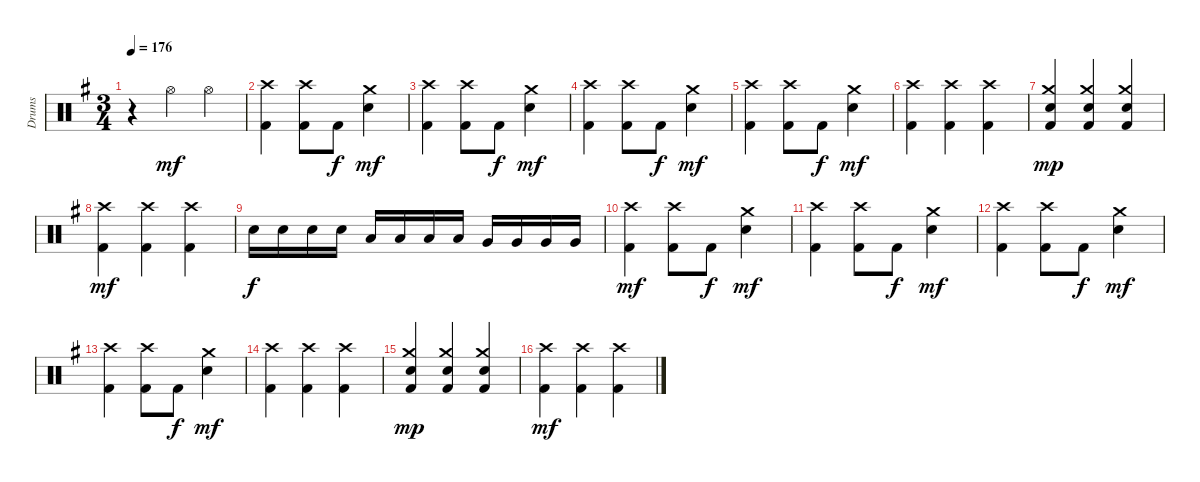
\track ("Drums" "Drums") {instrument percussion}
\staff {score}
\articulation defaults
\ts (3 4)
\tempo 176
\clef neutral
\ks g
r.4{dy mf} "Hi-Hat (open)".4 "Hi-Hat (open)".4 |
("Crash high (hit)" "Kick (hit) 2").4 ("Crash high (hit)" "Kick (hit) 2").8 "Kick (hit) 2".8{dy f} ("Crash medium (hit)" "Snare (hit) 2").4{dy mf} |
("Crash high (hit)" "Kick (hit) 2").4 ("Crash high (hit)" "Kick (hit) 2").8 "Kick (hit) 2".8{dy f} ("Crash medium (hit)" "Snare (hit) 2").4{dy mf} |
("Crash high (hit)" "Kick (hit) 2").4 ("Crash high (hit)" "Kick (hit) 2").8 "Kick (hit) 2".8{dy f} ("Crash medium (hit)" "Snare (hit) 2").4{dy mf} |
("Crash high (hit)" "Kick (hit) 2").4 ("Crash high (hit)" "Kick (hit) 2").8 "Kick (hit) 2".8{dy f} ("Crash medium (hit)" "Snare (hit) 2").4{dy mf} |
("Crash high (hit)" "Kick (hit) 2").4 ("Crash high (hit)" "Kick (hit) 2").4 ("Crash high (hit)" "Kick (hit) 2").4 |
("Crash medium (hit)" "Snare (hit) 2" "Kick (hit) 2").4{dy mp} ("Crash medium (hit)" "Snare (hit) 2" "Kick (hit) 2").4 ("Crash medium (hit)" "Snare (hit) 2" "Kick (hit) 2").4 |
("Crash high (hit)" "Kick (hit) 2").4{dy mf} ("Crash high (hit)" "Kick (hit) 2").4 ("Crash high (hit)" "Kick (hit) 2").4 |
"Snare (hit) 2".16{dy f} "Snare (hit) 2".16 "Snare (hit) 2".16 "Snare (hit) 2".16 "Low Tom (hit)".16 "Low Tom (hit)".16 "Low Tom (hit)".16 "Low Tom (hit)".16 "Very Low Tom (hit)".16 "Very Low Tom (hit)".16 "Very Low Tom (hit)".16 "Very Low Tom (hit)".16 |
("Crash high (hit)" "Kick (hit) 2").4{dy mf} ("Crash high (hit)" "Kick (hit) 2").8 "Kick (hit) 2".8{dy f} ("Crash medium (hit)" "Snare (hit) 2").4{dy mf} |
("Crash high (hit)" "Kick (hit) 2").4 ("Crash high (hit)" "Kick (hit) 2").8 "Kick (hit) 2".8{dy f} ("Crash medium (hit)" "Snare (hit) 2").4{dy mf} |
("Crash high (hit)" "Kick (hit) 2").4 ("Crash high (hit)" "Kick (hit) 2").8 "Kick (hit) 2".8{dy f} ("Crash medium (hit)" "Snare (hit) 2").4{dy mf} |
("Crash high (hit)" "Kick (hit) 2").4 ("Crash high (hit)" "Kick (hit) 2").8 "Kick (hit) 2".8{dy f} ("Crash medium (hit)" "Snare (hit) 2").4{dy mf} |
("Crash high (hit)" "Kick (hit) 2").4 ("Crash high (hit)" "Kick (hit) 2").4 ("Crash high (hit)" "Kick (hit) 2").4 |
("Crash medium (hit)" "Snare (hit) 2" "Kick (hit) 2").4{dy mp} ("Crash medium (hit)" "Snare (hit) 2" "Kick (hit) 2").4 ("Crash medium (hit)" "Snare (hit) 2" "Kick (hit) 2").4 |
("Crash high (hit)" "Kick (hit) 2").4{dy mf} ("Crash high (hit)" "Kick (hit) 2").4 ("Crash high (hit)" "Kick (hit) 2").4
